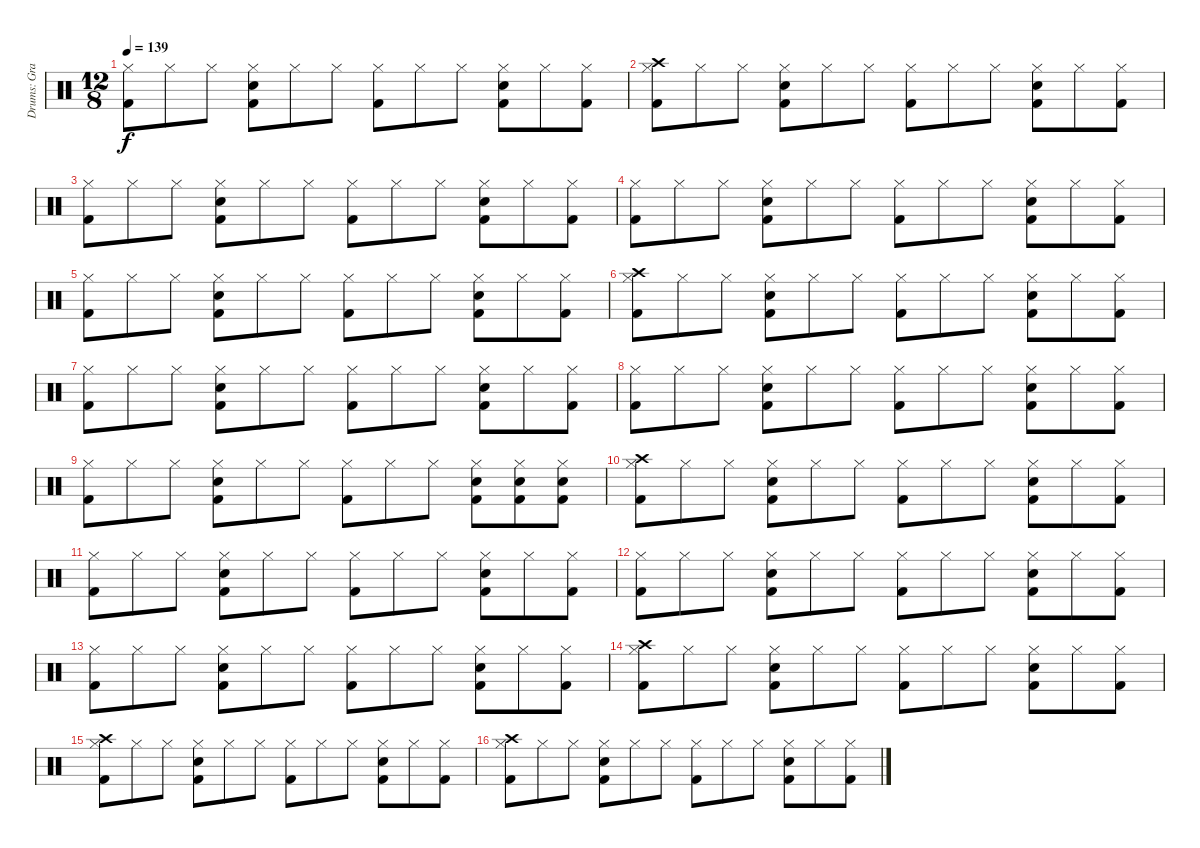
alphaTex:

\track ("Drums: Graeme Edge" "Drums: Gra") {instrument percussion}
\staff {score}
\articulation defaults
\ts (12 8)
\tempo 139
\clef neutral
\ks c
("Hi-Hat (closed)" "Kick (hit) 2").8{dy f} "Hi-Hat (closed)".8 "Hi-Hat (closed)".8 ("Hi-Hat (closed)" "Snare (hit) 2" "Kick (hit) 2").8 "Hi-Hat (closed)".8 "Hi-Hat (closed)".8 ("Hi-Hat (closed)" "Kick (hit) 2").8 "Hi-Hat (closed)".8 "Hi-Hat (closed)".8 ("Hi-Hat (closed)" "Snare (hit) 2" "Kick (hit) 2").8 "Hi-Hat (closed)".8 ("Hi-Hat (closed)" "Kick (hit) 2").8 |
("Crash high (hit)" "Hi-Hat (closed)" "Kick (hit) 2").8 "Hi-Hat (closed)".8 "Hi-Hat (closed)".8 ("Hi-Hat (closed)" "Snare (hit) 2" "Kick (hit) 2").8 "Hi-Hat (closed)".8 "Hi-Hat (closed)".8 ("Hi-Hat (closed)" "Kick (hit) 2").8 "Hi-Hat (closed)".8 "Hi-Hat (closed)".8 ("Hi-Hat (closed)" "Snare (hit) 2" "Kick (hit) 2").8 "Hi-Hat (closed)".8 ("Hi-Hat (closed)" "Kick (hit) 2").8 |
("Hi-Hat (closed)" "Kick (hit) 2").8 "Hi-Hat (closed)".8 "Hi-Hat (closed)".8 ("Hi-Hat (closed)" "Snare (hit) 2" "Kick (hit) 2").8 "Hi-Hat (closed)".8 "Hi-Hat (closed)".8 ("Hi-Hat (closed)" "Kick (hit) 2").8 "Hi-Hat (closed)".8 "Hi-Hat (closed)".8 ("Hi-Hat (closed)" "Snare (hit) 2" "Kick (hit) 2").8 "Hi-Hat (closed)".8 ("Hi-Hat (closed)" "Kick (hit) 2").8 |
("Hi-Hat (closed)" "Kick (hit) 2").8 "Hi-Hat (closed)".8 "Hi-Hat (closed)".8 ("Hi-Hat (closed)" "Snare (hit) 2" "Kick (hit) 2").8 "Hi-Hat (closed)".8 "Hi-Hat (closed)".8 ("Hi-Hat (closed)" "Kick (hit) 2").8 "Hi-Hat (closed)".8 "Hi-Hat (closed)".8 ("Hi-Hat (closed)" "Snare (hit) 2" "Kick (hit) 2").8 "Hi-Hat (closed)".8 ("Hi-Hat (closed)" "Kick (hit) 2").8 |
("Hi-Hat (closed)" "Kick (hit) 2").8 "Hi-Hat (closed)".8 "Hi-Hat (closed)".8 ("Hi-Hat (closed)" "Snare (hit) 2" "Kick (hit) 2").8 "Hi-Hat (closed)".8 "Hi-Hat (closed)".8 ("Hi-Hat (closed)" "Kick (hit) 2").8 "Hi-Hat (closed)".8 "Hi-Hat (closed)".8 ("Hi-Hat (closed)" "Snare (hit) 2" "Kick (hit) 2").8 "Hi-Hat (closed)".8 ("Hi-Hat (closed)" "Kick (hit) 2").8 |
("Crash high (hit)" "Hi-Hat (closed)" "Kick (hit) 2").8 "Hi-Hat (closed)".8 "Hi-Hat (closed)".8 ("Hi-Hat (closed)" "Snare (hit) 2" "Kick (hit) 2").8 "Hi-Hat (closed)".8 "Hi-Hat (closed)".8 ("Hi-Hat (closed)" "Kick (hit) 2").8 "Hi-Hat (closed)".8 "Hi-Hat (closed)".8 ("Hi-Hat (closed)" "Snare (hit) 2" "Kick (hit) 2").8 "Hi-Hat (closed)".8 ("Hi-Hat (closed)" "Kick (hit) 2").8 |
("Hi-Hat (closed)" "Kick (hit) 2").8 "Hi-Hat (closed)".8 "Hi-Hat (closed)".8 ("Hi-Hat (closed)" "Snare (hit) 2" "Kick (hit) 2").8 "Hi-Hat (closed)".8 "Hi-Hat (closed)".8 ("Hi-Hat (closed)" "Kick (hit) 2").8 "Hi-Hat (closed)".8 "Hi-Hat (closed)".8 ("Hi-Hat (closed)" "Snare (hit) 2" "Kick (hit) 2").8 "Hi-Hat (closed)".8 ("Hi-Hat (closed)" "Kick (hit) 2").8 |
("Hi-Hat (closed)" "Kick (hit) 2").8 "Hi-Hat (closed)".8 "Hi-Hat (closed)".8 ("Hi-Hat (closed)" "Snare (hit) 2" "Kick (hit) 2").8 "Hi-Hat (closed)".8 "Hi-Hat (closed)".8 ("Hi-Hat (closed)" "Kick (hit) 2").8 "Hi-Hat (closed)".8 "Hi-Hat (closed)".8 ("Hi-Hat (closed)" "Snare (hit) 2" "Kick (hit) 2").8 "Hi-Hat (closed)".8 ("Hi-Hat (closed)" "Kick (hit) 2").8 |
("Hi-Hat (closed)" "Kick (hit) 2").8 "Hi-Hat (closed)".8 "Hi-Hat (closed)".8 ("Hi-Hat (closed)" "Snare (hit) 2" "Kick (hit) 2").8 "Hi-Hat (closed)".8 "Hi-Hat (closed)".8 ("Hi-Hat (closed)" "Kick (hit) 2").8 "Hi-Hat (closed)".8 "Hi-Hat (closed)".8 ("Hi-Hat (closed)" "Snare (hit) 2" "Kick (hit) 2").8 ("Hi-Hat (closed)" "Snare (hit) 2" "Kick (hit) 2").8 ("Hi-Hat (closed)" "Snare (hit) 2" "Kick (hit) 2").8 |
("Crash high (hit)" "Hi-Hat (closed)" "Kick (hit) 2").8 "Hi-Hat (closed)".8 "Hi-Hat (closed)".8 ("Hi-Hat (closed)" "Snare (hit) 2" "Kick (hit) 2").8 "Hi-Hat (closed)".8 "Hi-Hat (closed)".8 ("Hi-Hat (closed)" "Kick (hit) 2").8 "Hi-Hat (closed)".8 "Hi-Hat (closed)".8 ("Hi-Hat (closed)" "Snare (hit) 2" "Kick (hit) 2").8 "Hi-Hat (closed)".8 ("Hi-Hat (closed)" "Kick (hit) 2").8 |
("Hi-Hat (closed)" "Kick (hit) 2").8 "Hi-Hat (closed)".8 "Hi-Hat (closed)".8 ("Hi-Hat (closed)" "Snare (hit) 2" "Kick (hit) 2").8 "Hi-Hat (closed)".8 "Hi-Hat (closed)".8 ("Hi-Hat (closed)" "Kick (hit) 2").8 "Hi-Hat (closed)".8 "Hi-Hat (closed)".8 ("Hi-Hat (closed)" "Snare (hit) 2" "Kick (hit) 2").8 "Hi-Hat (closed)".8 ("Hi-Hat (closed)" "Kick (hit) 2").8 |
("Hi-Hat (closed)" "Kick (hit) 2").8 "Hi-Hat (closed)".8 "Hi-Hat (closed)".8 ("Hi-Hat (closed)" "Snare (hit) 2" "Kick (hit) 2").8 "Hi-Hat (closed)".8 "Hi-Hat (closed)".8 ("Hi-Hat (closed)" "Kick (hit) 2").8 "Hi-Hat (closed)".8 "Hi-Hat (closed)".8 ("Hi-Hat (closed)" "Snare (hit) 2" "Kick (hit) 2").8 "Hi-Hat (closed)".8 ("Hi-Hat (closed)" "Kick (hit) 2").8 |
("Hi-Hat (closed)" "Kick (hit) 2").8 "Hi-Hat (closed)".8 "Hi-Hat (closed)".8 ("Hi-Hat (closed)" "Snare (hit) 2" "Kick (hit) 2").8 "Hi-Hat (closed)".8 "Hi-Hat (closed)".8 ("Hi-Hat (closed)" "Kick (hit) 2").8 "Hi-Hat (closed)".8 "Hi-Hat (closed)".8 ("Hi-Hat (closed)" "Snare (hit) 2" "Kick (hit) 2").8 "Hi-Hat (closed)".8 ("Hi-Hat (closed)" "Kick (hit) 2").8 |
("Crash high (hit)" "Hi-Hat (closed)" "Kick (hit) 2").8 "Hi-Hat (closed)".8 "Hi-Hat (closed)".8 ("Hi-Hat (closed)" "Snare (hit) 2" "Kick (hit) 2").8 "Hi-Hat (closed)".8 "Hi-Hat (closed)".8 ("Hi-Hat (closed)" "Kick (hit) 2").8 "Hi-Hat (closed)".8 "Hi-Hat (closed)".8 ("Hi-Hat (closed)" "Snare (hit) 2" "Kick (hit) 2").8 "Hi-Hat (closed)".8 ("Hi-Hat (closed)" "Kick (hit) 2").8 |
("Crash high (hit)" "Hi-Hat (closed)" "Kick (hit) 2").8 "Hi-Hat (closed)".8 "Hi-Hat (closed)".8 ("Hi-Hat (closed)" "Snare (hit) 2" "Kick (hit) 2").8 "Hi-Hat (closed)".8 "Hi-Hat (closed)".8 ("Hi-Hat (closed)" "Kick (hit) 2").8 "Hi-Hat (closed)".8 "Hi-Hat (closed)".8 ("Hi-Hat (closed)" "Snare (hit) 2" "Kick (hit) 2").8 "Hi-Hat (closed)".8 ("Hi-Hat (closed)" "Kick (hit) 2").8 |
("Crash high (hit)" "Hi-Hat (closed)" "Kick (hit) 2").8 "Hi-Hat (closed)".8 "Hi-Hat (closed)".8 ("Hi-Hat (closed)" "Snare (hit) 2" "Kick (hit) 2").8 "Hi-Hat (closed)".8 "Hi-Hat (closed)".8 ("Hi-Hat (closed)" "Kick (hit) 2").8 "Hi-Hat (closed)".8 "Hi-Hat (closed)".8 ("Hi-Hat (closed)" "Snare (hit) 2" "Kick (hit) 2").8 "Hi-Hat (closed)".8 ("Hi-Hat (closed)" "Kick (hit) 2").8
